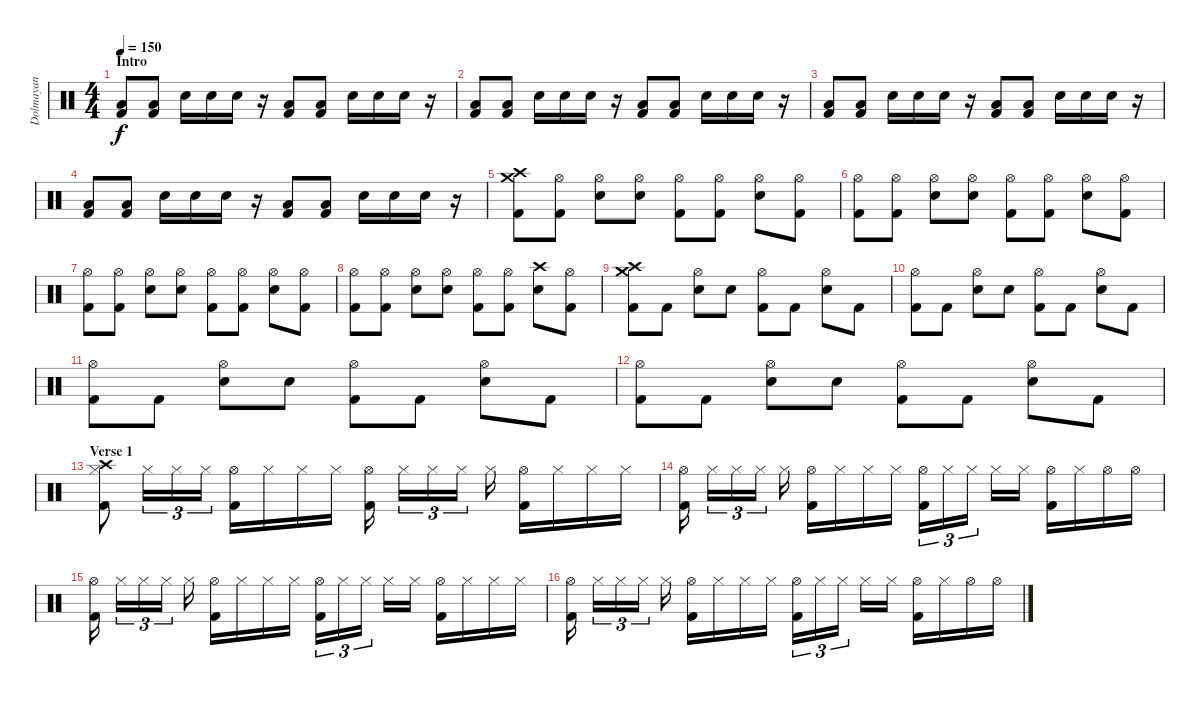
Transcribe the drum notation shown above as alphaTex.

\track ("Dolmayan" "Dolmayan") {instrument percussion}
\staff {score}
\articulation defaults
\ts (4 4)
\section ("" "Intro")
\tempo 150
\clef neutral
\ks c
("Low Floor Tom (hit)" "Kick (hit) 2").8{dy f} ("Low Floor Tom (hit)" "Kick (hit) 2").8 "Electric Snare (hit)".16 "Electric Snare (hit)".16 "Electric Snare (hit)".16 r.16 ("Low Floor Tom (hit)" "Kick (hit) 2").8 ("Low Floor Tom (hit)" "Kick (hit) 2").8 "Electric Snare (hit)".16 "Electric Snare (hit)".16 "Electric Snare (hit)".16 r.16 |
("Low Floor Tom (hit)" "Kick (hit) 2").8 ("Low Floor Tom (hit)" "Kick (hit) 2").8 "Electric Snare (hit)".16 "Electric Snare (hit)".16 "Electric Snare (hit)".16 r.16 ("Low Floor Tom (hit)" "Kick (hit) 2").8 ("Low Floor Tom (hit)" "Kick (hit) 2").8 "Electric Snare (hit)".16 "Electric Snare (hit)".16 "Electric Snare (hit)".16 r.16 |
("Low Floor Tom (hit)" "Kick (hit) 2").8 ("Low Floor Tom (hit)" "Kick (hit) 2").8 "Electric Snare (hit)".16 "Electric Snare (hit)".16 "Electric Snare (hit)".16 r.16 ("Low Floor Tom (hit)" "Kick (hit) 2").8 ("Low Floor Tom (hit)" "Kick (hit) 2").8 "Electric Snare (hit)".16 "Electric Snare (hit)".16 "Electric Snare (hit)".16 r.16 |
("Low Floor Tom (hit)" "Kick (hit) 2").8 ("Low Floor Tom (hit)" "Kick (hit) 2").8 "Electric Snare (hit)".16 "Electric Snare (hit)".16 "Electric Snare (hit)".16 r.16 ("Low Floor Tom (hit)" "Kick (hit) 2").8 ("Low Floor Tom (hit)" "Kick (hit) 2").8 "Electric Snare (hit)".16 "Electric Snare (hit)".16 "Electric Snare (hit)".16 r.16 |
("Crash high (hit)" "Crash medium (hit)" "Kick (hit) 2").8 ("Hi-Hat (open)" "Kick (hit) 2").8 ("Hi-Hat (open)" "Electric Snare (hit)").8 ("Hi-Hat (open)" "Electric Snare (hit)").8 ("Hi-Hat (open)" "Kick (hit) 2").8 ("Hi-Hat (open)" "Kick (hit) 2").8 ("Hi-Hat (open)" "Electric Snare (hit)").8 ("Hi-Hat (open)" "Kick (hit) 2").8 |
("Hi-Hat (open)" "Kick (hit) 2").8 ("Hi-Hat (open)" "Kick (hit) 2").8 ("Hi-Hat (open)" "Electric Snare (hit)").8 ("Hi-Hat (open)" "Electric Snare (hit)").8 ("Hi-Hat (open)" "Kick (hit) 2").8 ("Hi-Hat (open)" "Kick (hit) 2").8 ("Hi-Hat (open)" "Electric Snare (hit)").8 ("Hi-Hat (open)" "Kick (hit) 2").8 |
("Hi-Hat (open)" "Kick (hit) 2").8 ("Hi-Hat (open)" "Kick (hit) 2").8 ("Hi-Hat (open)" "Electric Snare (hit)").8 ("Hi-Hat (open)" "Electric Snare (hit)").8 ("Hi-Hat (open)" "Kick (hit) 2").8 ("Hi-Hat (open)" "Kick (hit) 2").8 ("Hi-Hat (open)" "Electric Snare (hit)").8 ("Hi-Hat (open)" "Kick (hit) 2").8 |
("Hi-Hat (open)" "Kick (hit) 2").8 ("Hi-Hat (open)" "Kick (hit) 2").8 ("Hi-Hat (open)" "Electric Snare (hit)").8 ("Hi-Hat (open)" "Electric Snare (hit)").8 ("Hi-Hat (open)" "Kick (hit) 2").8 ("Hi-Hat (open)" "Kick (hit) 2").8 ("Crash high (hit)" "Electric Snare (hit)").8 ("Hi-Hat (open)" "Kick (hit) 2").8 |
("Crash high (hit)" "Crash medium (hit)" "Kick (hit) 2").8 "Kick (hit) 2".8 ("Hi-Hat (open)" "Electric Snare (hit)").8 "Electric Snare (hit)".8 ("Hi-Hat (open)" "Kick (hit) 2").8 "Kick (hit) 2".8 ("Hi-Hat (open)" "Electric Snare (hit)").8 "Kick (hit) 2".8 |
("Hi-Hat (open)" "Kick (hit) 2").8 "Kick (hit) 2".8 ("Hi-Hat (open)" "Electric Snare (hit)").8 "Electric Snare (hit)".8 ("Hi-Hat (open)" "Kick (hit) 2").8 "Kick (hit) 2".8 ("Hi-Hat (open)" "Electric Snare (hit)").8 "Kick (hit) 2".8 |
("Hi-Hat (open)" "Kick (hit) 2").8 "Kick (hit) 2".8 ("Hi-Hat (open)" "Electric Snare (hit)").8 "Electric Snare (hit)".8 ("Hi-Hat (open)" "Kick (hit) 2").8 "Kick (hit) 2".8 ("Hi-Hat (open)" "Electric Snare (hit)").8 "Kick (hit) 2".8 |
("Hi-Hat (open)" "Kick (hit) 2").8 "Kick (hit) 2".8 ("Hi-Hat (open)" "Electric Snare (hit)").8 "Electric Snare (hit)".8 ("Hi-Hat (open)" "Kick (hit) 2").8 "Kick (hit) 2".8 ("Hi-Hat (open)" "Electric Snare (hit)").8 "Kick (hit) 2".8 |
\section ("" "Verse 1")
("Crash high (hit)" "Hi-Hat (closed)" "Kick (hit) 2").8 "Hi-Hat (closed)".16{tu (3 2)} "Hi-Hat (closed)".16{tu (3 2)} "Hi-Hat (closed)".16{tu (3 2)} ("Hi-Hat (open)" "Kick (hit) 2").16 "Hi-Hat (closed)".16 "Hi-Hat (closed)".16 "Hi-Hat (closed)".16 ("Hi-Hat (open)" "Kick (hit) 2").16 "Hi-Hat (closed)".16{tu (3 2)} "Hi-Hat (closed)".16{tu (3 2)} "Hi-Hat (closed)".16{tu (3 2)} "Hi-Hat (closed)".16 ("Hi-Hat (open)" "Kick (hit) 2").16 "Hi-Hat (closed)".16 "Hi-Hat (closed)".16 "Hi-Hat (closed)".16 |
("Hi-Hat (open)" "Kick (hit) 2").16 "Hi-Hat (closed)".16{tu (3 2)} "Hi-Hat (closed)".16{tu (3 2)} "Hi-Hat (closed)".16{tu (3 2)} "Hi-Hat (closed)".16 ("Hi-Hat (open)" "Kick (hit) 2").16 "Hi-Hat (closed)".16 "Hi-Hat (closed)".16 "Hi-Hat (closed)".16 ("Hi-Hat (open)" "Kick (hit) 2").16{tu (3 2)} "Hi-Hat (closed)".16{tu (3 2)} "Hi-Hat (closed)".16{tu (3 2)} "Hi-Hat (closed)".16 "Hi-Hat (closed)".16 ("Hi-Hat (open)" "Kick (hit) 2").16 "Hi-Hat (closed)".16 "Hi-Hat (open)".16 "Hi-Hat (open)".16 |
("Hi-Hat (open)" "Kick (hit) 2").16 "Hi-Hat (closed)".16{tu (3 2)} "Hi-Hat (closed)".16{tu (3 2)} "Hi-Hat (closed)".16{tu (3 2)} "Hi-Hat (closed)".16 ("Hi-Hat (open)" "Kick (hit) 2").16 "Hi-Hat (closed)".16 "Hi-Hat (closed)".16 "Hi-Hat (closed)".16 ("Hi-Hat (open)" "Kick (hit) 2").16{tu (3 2)} "Hi-Hat (closed)".16{tu (3 2)} "Hi-Hat (closed)".16{tu (3 2)} "Hi-Hat (closed)".16 "Hi-Hat (closed)".16 ("Hi-Hat (open)" "Kick (hit) 2").16 "Hi-Hat (closed)".16 "Hi-Hat (closed)".16 "Hi-Hat (closed)".16 |
("Hi-Hat (open)" "Kick (hit) 2").16 "Hi-Hat (closed)".16{tu (3 2)} "Hi-Hat (closed)".16{tu (3 2)} "Hi-Hat (closed)".16{tu (3 2)} "Hi-Hat (closed)".16 ("Hi-Hat (open)" "Kick (hit) 2").16 "Hi-Hat (closed)".16 "Hi-Hat (closed)".16 "Hi-Hat (closed)".16 ("Hi-Hat (open)" "Kick (hit) 2").16{tu (3 2)} "Hi-Hat (closed)".16{tu (3 2)} "Hi-Hat (closed)".16{tu (3 2)} "Hi-Hat (closed)".16 "Hi-Hat (closed)".16 ("Hi-Hat (open)" "Kick (hit) 2").16 "Hi-Hat (closed)".16 "Hi-Hat (open)".16 "Hi-Hat (open)".16
